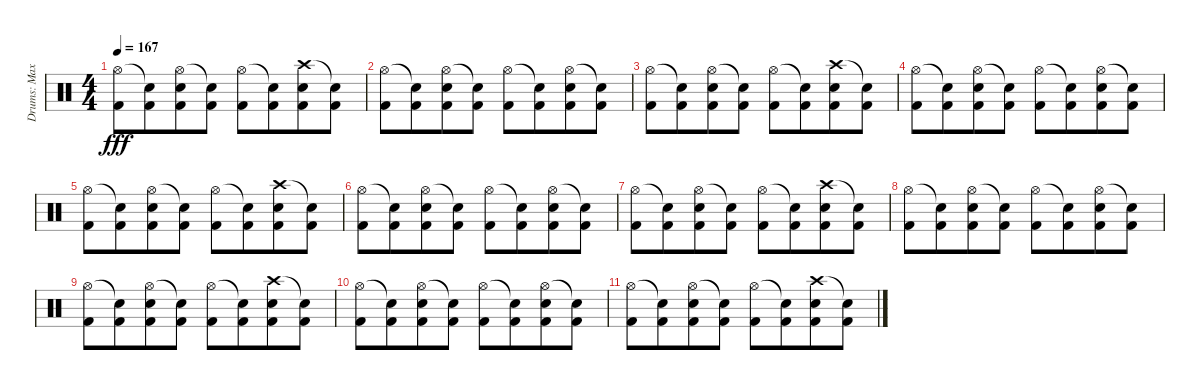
\track ("Drums: Max" "Drums: Max") {instrument percussion}
\staff {score}
\articulation defaults
\ts (4 4)
\tempo 167
\clef neutral
\ks c
("Hi-Hat (open)" "Kick (hit) 2").8{dy fff} ("Snare (hit)"{t} "Kick (hit) 2").8{beam merge} ("Hi-Hat (open)" "Electric Snare (hit)" "Kick (hit) 2").8 ("Snare (hit)"{t} "Kick (hit) 2").8 ("Hi-Hat (open)" "Kick (hit) 2").8 ("Snare (hit)"{t} "Kick (hit) 2").8{beam merge} ("Crash high (hit)" "Electric Snare (hit)" "Kick (hit) 2").8 ("Snare (hit)"{t} "Kick (hit) 2").8 |
("Hi-Hat (open)" "Kick (hit) 2").8 ("Snare (hit)"{t} "Kick (hit) 2").8{beam merge} ("Hi-Hat (open)" "Electric Snare (hit)" "Kick (hit) 2").8 ("Snare (hit)"{t} "Kick (hit) 2").8 ("Hi-Hat (open)" "Kick (hit) 2").8 ("Snare (hit)"{t} "Kick (hit) 2").8{beam merge} ("Hi-Hat (open)" "Electric Snare (hit)" "Kick (hit) 2").8 ("Snare (hit)"{t} "Kick (hit) 2").8 |
("Hi-Hat (open)" "Kick (hit) 2").8 ("Snare (hit)"{t} "Kick (hit) 2").8{beam merge} ("Hi-Hat (open)" "Electric Snare (hit)" "Kick (hit) 2").8 ("Snare (hit)"{t} "Kick (hit) 2").8 ("Hi-Hat (open)" "Kick (hit) 2").8 ("Snare (hit)"{t} "Kick (hit) 2").8{beam merge} ("Crash high (hit)" "Electric Snare (hit)" "Kick (hit) 2").8 ("Snare (hit)"{t} "Kick (hit) 2").8 |
("Hi-Hat (open)" "Kick (hit) 2").8 ("Snare (hit)"{t} "Kick (hit) 2").8{beam merge} ("Hi-Hat (open)" "Electric Snare (hit)" "Kick (hit) 2").8 ("Snare (hit)"{t} "Kick (hit) 2").8 ("Hi-Hat (open)" "Kick (hit) 2").8 ("Snare (hit)"{t} "Kick (hit) 2").8{beam merge} ("Hi-Hat (open)" "Electric Snare (hit)" "Kick (hit) 2").8 ("Snare (hit)"{t} "Kick (hit) 2").8 |
("Hi-Hat (open)" "Kick (hit) 2").8 ("Snare (hit)"{t} "Kick (hit) 2").8{beam merge} ("Hi-Hat (open)" "Electric Snare (hit)" "Kick (hit) 2").8 ("Snare (hit)"{t} "Kick (hit) 2").8 ("Hi-Hat (open)" "Kick (hit) 2").8 ("Snare (hit)"{t} "Kick (hit) 2").8{beam merge} ("Crash high (hit)" "Electric Snare (hit)" "Kick (hit) 2").8 ("Snare (hit)"{t} "Kick (hit) 2").8 |
("Hi-Hat (open)" "Kick (hit) 2").8 ("Snare (hit)"{t} "Kick (hit) 2").8{beam merge} ("Hi-Hat (open)" "Electric Snare (hit)" "Kick (hit) 2").8 ("Snare (hit)"{t} "Kick (hit) 2").8 ("Hi-Hat (open)" "Kick (hit) 2").8 ("Snare (hit)"{t} "Kick (hit) 2").8{beam merge} ("Hi-Hat (open)" "Electric Snare (hit)" "Kick (hit) 2").8 ("Snare (hit)"{t} "Kick (hit) 2").8 |
("Hi-Hat (open)" "Kick (hit) 2").8 ("Snare (hit)"{t} "Kick (hit) 2").8{beam merge} ("Hi-Hat (open)" "Electric Snare (hit)" "Kick (hit) 2").8 ("Snare (hit)"{t} "Kick (hit) 2").8 ("Hi-Hat (open)" "Kick (hit) 2").8 ("Snare (hit)"{t} "Kick (hit) 2").8{beam merge} ("Crash high (hit)" "Electric Snare (hit)" "Kick (hit) 2").8 ("Snare (hit)"{t} "Kick (hit) 2").8 |
("Hi-Hat (open)" "Kick (hit) 2").8 ("Snare (hit)"{t} "Kick (hit) 2").8{beam merge} ("Hi-Hat (open)" "Electric Snare (hit)" "Kick (hit) 2").8 ("Snare (hit)"{t} "Kick (hit) 2").8 ("Hi-Hat (open)" "Kick (hit) 2").8 ("Snare (hit)"{t} "Kick (hit) 2").8{beam merge} ("Hi-Hat (open)" "Electric Snare (hit)" "Kick (hit) 2").8 ("Snare (hit)"{t} "Kick (hit) 2").8 |
("Hi-Hat (open)" "Kick (hit) 2").8 ("Snare (hit)"{t} "Kick (hit) 2").8{beam merge} ("Hi-Hat (open)" "Electric Snare (hit)" "Kick (hit) 2").8 ("Snare (hit)"{t} "Kick (hit) 2").8 ("Hi-Hat (open)" "Kick (hit) 2").8 ("Snare (hit)"{t} "Kick (hit) 2").8{beam merge} ("Crash high (hit)" "Electric Snare (hit)" "Kick (hit) 2").8 ("Snare (hit)"{t} "Kick (hit) 2").8 |
("Hi-Hat (open)" "Kick (hit) 2").8 ("Snare (hit)"{t} "Kick (hit) 2").8{beam merge} ("Hi-Hat (open)" "Electric Snare (hit)" "Kick (hit) 2").8 ("Snare (hit)"{t} "Kick (hit) 2").8 ("Hi-Hat (open)" "Kick (hit) 2").8 ("Snare (hit)"{t} "Kick (hit) 2").8{beam merge} ("Hi-Hat (open)" "Electric Snare (hit)" "Kick (hit) 2").8 ("Snare (hit)"{t} "Kick (hit) 2").8 |
("Hi-Hat (open)" "Kick (hit) 2").8 ("Snare (hit)"{t} "Kick (hit) 2").8{beam merge} ("Hi-Hat (open)" "Electric Snare (hit)" "Kick (hit) 2").8 ("Snare (hit)"{t} "Kick (hit) 2").8 ("Hi-Hat (open)" "Kick (hit) 2").8 ("Snare (hit)"{t} "Kick (hit) 2").8{beam merge} ("Crash high (hit)" "Electric Snare (hit)" "Kick (hit) 2").8 ("Snare (hit)"{t} "Kick (hit) 2").8
